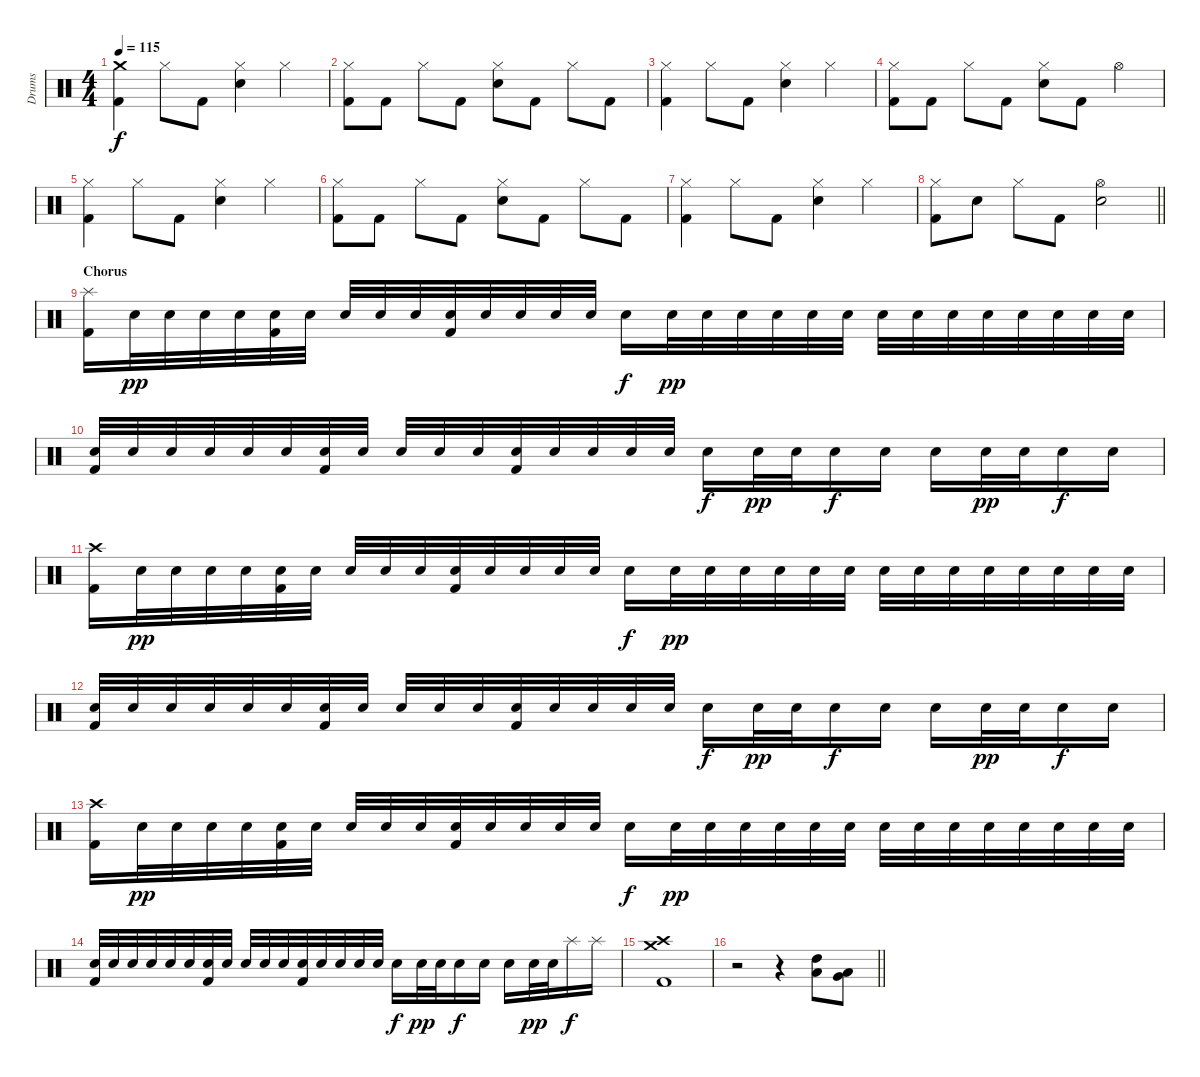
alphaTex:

\track ("Drums" "Drums") {instrument percussion}
\staff {score}
\articulation defaults
\ts (4 4)
\tempo 115
\clef neutral
\ks c
("Crash medium (hit)" "Kick (hit) 2").4{dy f} "Hi-Hat (closed)".8 "Kick (hit) 2".8 ("Hi-Hat (closed)" "Snare (hit) 2").4 "Hi-Hat (closed)".4 |
("Hi-Hat (closed)" "Kick (hit) 2").8 "Kick (hit) 2".8 "Hi-Hat (closed)".8 "Kick (hit) 2".8 ("Hi-Hat (closed)" "Snare (hit) 2").8 "Kick (hit) 2".8 "Hi-Hat (closed)".8 "Kick (hit) 2".8 |
("Hi-Hat (closed)" "Kick (hit) 2").4 "Hi-Hat (closed)".8 "Kick (hit) 2".8 ("Hi-Hat (closed)" "Snare (hit) 2").4 "Hi-Hat (closed)".4 |
("Hi-Hat (closed)" "Kick (hit) 2").8 "Kick (hit) 2".8 "Hi-Hat (closed)".8 "Kick (hit) 2".8 ("Hi-Hat (closed)" "Snare (hit) 2").8 "Kick (hit) 2".8 "Hi-Hat (open)".4 |
("Hi-Hat (closed)" "Kick (hit) 2").4 "Hi-Hat (closed)".8 "Kick (hit) 2".8 ("Hi-Hat (closed)" "Snare (hit) 2").4 "Hi-Hat (closed)".4 |
("Hi-Hat (closed)" "Kick (hit) 2").8 "Kick (hit) 2".8 "Hi-Hat (closed)".8 "Kick (hit) 2".8 ("Hi-Hat (closed)" "Snare (hit) 2").8 "Kick (hit) 2".8 "Hi-Hat (closed)".8 "Kick (hit) 2".8 |
("Hi-Hat (closed)" "Kick (hit) 2").4 "Hi-Hat (closed)".8 "Kick (hit) 2".8 ("Hi-Hat (closed)" "Snare (hit) 2").4 "Hi-Hat (closed)".4 |
\barLineRight lightlight
("Hi-Hat (closed)" "Kick (hit) 2").8 "Snare (hit) 2".8 "Hi-Hat (closed)".8 "Kick (hit) 2".8 ("Hi-Hat (open)" "Snare (hit) 2").2 |
\section ("" "Chorus")
("Splash (hit)" "Kick (hit) 2").16 "Snare (hit) 2".32{dy pp} "Snare (hit) 2".32 "Snare (hit) 2".32 "Snare (hit) 2".32 ("Snare (hit) 2" "Kick (hit) 2").32 "Snare (hit) 2".32 "Snare (hit) 2".32 "Snare (hit) 2".32 "Snare (hit) 2".32 ("Snare (hit) 2" "Kick (hit) 2").32 "Snare (hit) 2".32 "Snare (hit) 2".32 "Snare (hit) 2".32 "Snare (hit) 2".32 "Snare (hit) 2".16{dy f} "Snare (hit) 2".32{dy pp} "Snare (hit) 2".32 "Snare (hit) 2".32 "Snare (hit) 2".32 "Snare (hit) 2".32 "Snare (hit) 2".32 "Snare (hit) 2".32 "Snare (hit) 2".32 "Snare (hit) 2".32 "Snare (hit) 2".32 "Snare (hit) 2".32 "Snare (hit) 2".32 "Snare (hit) 2".32 "Snare (hit) 2".32 |
("Snare (hit) 2" "Kick (hit) 2").32 "Snare (hit) 2".32 "Snare (hit) 2".32 "Snare (hit) 2".32 "Snare (hit) 2".32 "Snare (hit) 2".32 ("Snare (hit) 2" "Kick (hit) 2").32 "Snare (hit) 2".32 "Snare (hit) 2".32 "Snare (hit) 2".32 "Snare (hit) 2".32 ("Snare (hit) 2" "Kick (hit) 2").32 "Snare (hit) 2".32 "Snare (hit) 2".32 "Snare (hit) 2".32 "Snare (hit) 2".32 "Snare (hit) 2".16{dy f} "Snare (hit) 2".32{dy pp} "Snare (hit) 2".32 "Snare (hit) 2".16{dy f} "Snare (hit) 2".16 "Snare (hit) 2".16 "Snare (hit) 2".32{dy pp} "Snare (hit) 2".32 "Snare (hit) 2".16{dy f} "Snare (hit) 2".16 |
("Crash high (hit)" "Kick (hit) 2").16 "Snare (hit) 2".32{dy pp} "Snare (hit) 2".32 "Snare (hit) 2".32 "Snare (hit) 2".32 ("Snare (hit) 2" "Kick (hit) 2").32 "Snare (hit) 2".32 "Snare (hit) 2".32 "Snare (hit) 2".32 "Snare (hit) 2".32 ("Snare (hit) 2" "Kick (hit) 2").32 "Snare (hit) 2".32 "Snare (hit) 2".32 "Snare (hit) 2".32 "Snare (hit) 2".32 "Snare (hit) 2".16{dy f} "Snare (hit) 2".32{dy pp} "Snare (hit) 2".32 "Snare (hit) 2".32 "Snare (hit) 2".32 "Snare (hit) 2".32 "Snare (hit) 2".32 "Snare (hit) 2".32 "Snare (hit) 2".32 "Snare (hit) 2".32 "Snare (hit) 2".32 "Snare (hit) 2".32 "Snare (hit) 2".32 "Snare (hit) 2".32 "Snare (hit) 2".32 |
("Snare (hit) 2" "Kick (hit) 2").32 "Snare (hit) 2".32 "Snare (hit) 2".32 "Snare (hit) 2".32 "Snare (hit) 2".32 "Snare (hit) 2".32 ("Snare (hit) 2" "Kick (hit) 2").32 "Snare (hit) 2".32 "Snare (hit) 2".32 "Snare (hit) 2".32 "Snare (hit) 2".32 ("Snare (hit) 2" "Kick (hit) 2").32 "Snare (hit) 2".32 "Snare (hit) 2".32 "Snare (hit) 2".32 "Snare (hit) 2".32 "Snare (hit) 2".16{dy f} "Snare (hit) 2".32{dy pp} "Snare (hit) 2".32 "Snare (hit) 2".16{dy f} "Snare (hit) 2".16 "Snare (hit) 2".16 "Snare (hit) 2".32{dy pp} "Snare (hit) 2".32 "Snare (hit) 2".16{dy f} "Snare (hit) 2".16 |
("Crash high (hit)" "Kick (hit) 2").16 "Snare (hit) 2".32{dy pp} "Snare (hit) 2".32 "Snare (hit) 2".32 "Snare (hit) 2".32 ("Snare (hit) 2" "Kick (hit) 2").32 "Snare (hit) 2".32 "Snare (hit) 2".32 "Snare (hit) 2".32 "Snare (hit) 2".32 ("Snare (hit) 2" "Kick (hit) 2").32 "Snare (hit) 2".32 "Snare (hit) 2".32 "Snare (hit) 2".32 "Snare (hit) 2".32 "Snare (hit) 2".16{dy f} "Snare (hit) 2".32{dy pp} "Snare (hit) 2".32 "Snare (hit) 2".32 "Snare (hit) 2".32 "Snare (hit) 2".32 "Snare (hit) 2".32 "Snare (hit) 2".32 "Snare (hit) 2".32 "Snare (hit) 2".32 "Snare (hit) 2".32 "Snare (hit) 2".32 "Snare (hit) 2".32 "Snare (hit) 2".32 "Snare (hit) 2".32 |
("Snare (hit) 2" "Kick (hit) 2").32 "Snare (hit) 2".32 "Snare (hit) 2".32 "Snare (hit) 2".32 "Snare (hit) 2".32 "Snare (hit) 2".32 ("Snare (hit) 2" "Kick (hit) 2").32 "Snare (hit) 2".32 "Snare (hit) 2".32 "Snare (hit) 2".32 "Snare (hit) 2".32 ("Snare (hit) 2" "Kick (hit) 2").32 "Snare (hit) 2".32 "Snare (hit) 2".32 "Snare (hit) 2".32 "Snare (hit) 2".32 "Snare (hit) 2".16{dy f} "Snare (hit) 2".32{dy pp} "Snare (hit) 2".32 "Snare (hit) 2".16{dy f} "Snare (hit) 2".16 "Snare (hit) 2".16 "Snare (hit) 2".32{dy pp} "Snare (hit) 2".32 "Splash (hit)".16{dy f} "Splash (hit)".16 |
("Crash medium (hit)" "Crash high (hit)" "Kick (hit) 2").1 |
\barLineRight lightlight
r.2 r.4 ("Low Tom (hit)" "High Tom (hit)").8 ("Low Tom (hit)" "Very Low Tom (hit)").8
